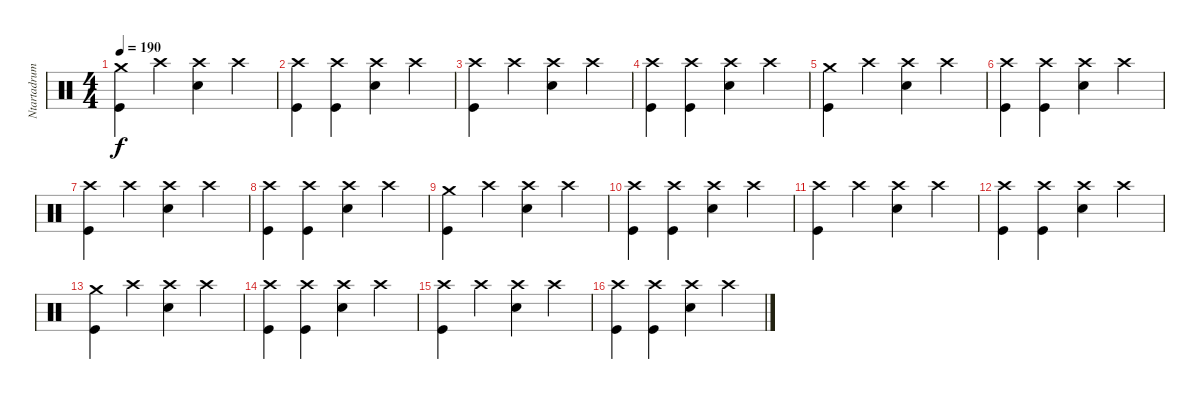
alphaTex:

\track ("Ntartadrum" "Ntartadrum") {instrument percussion}
\staff {score}
\articulation defaults
\ts (4 4)
\tempo 190
\clef neutral
\ks c
("Kick (hit)" "Crash medium (hit)").4{dy f} "Crash high (hit)".4 ("Electric Snare (hit)" "Crash high (hit)").4 "Crash high (hit)".4 |
("Kick (hit)" "Crash high (hit)").4 ("Kick (hit)" "Crash high (hit)").4 ("Electric Snare (hit)" "Crash high (hit)").4 "Crash high (hit)".4 |
("Kick (hit)" "Crash high (hit)").4 "Crash high (hit)".4 ("Electric Snare (hit)" "Crash high (hit)").4 "Crash high (hit)".4 |
("Kick (hit)" "Crash high (hit)").4 ("Kick (hit)" "Crash high (hit)").4 ("Electric Snare (hit)" "Crash high (hit)").4 "Crash high (hit)".4 |
("Kick (hit)" "Crash medium (hit)").4 "Crash high (hit)".4 ("Electric Snare (hit)" "Crash high (hit)").4 "Crash high (hit)".4 |
("Kick (hit)" "Crash high (hit)").4 ("Kick (hit)" "Crash high (hit)").4 ("Electric Snare (hit)" "Crash high (hit)").4 "Crash high (hit)".4 |
("Kick (hit)" "Crash high (hit)").4 "Crash high (hit)".4 ("Electric Snare (hit)" "Crash high (hit)").4 "Crash high (hit)".4 |
("Kick (hit)" "Crash high (hit)").4 ("Kick (hit)" "Crash high (hit)").4 ("Electric Snare (hit)" "Crash high (hit)").4 "Crash high (hit)".4 |
("Kick (hit)" "Crash medium (hit)").4 "Crash high (hit)".4 ("Electric Snare (hit)" "Crash high (hit)").4 "Crash high (hit)".4 |
("Kick (hit)" "Crash high (hit)").4 ("Kick (hit)" "Crash high (hit)").4 ("Electric Snare (hit)" "Crash high (hit)").4 "Crash high (hit)".4 |
("Kick (hit)" "Crash high (hit)").4 "Crash high (hit)".4 ("Electric Snare (hit)" "Crash high (hit)").4 "Crash high (hit)".4 |
("Kick (hit)" "Crash high (hit)").4 ("Kick (hit)" "Crash high (hit)").4 ("Electric Snare (hit)" "Crash high (hit)").4 "Crash high (hit)".4 |
("Kick (hit)" "Crash medium (hit)").4 "Crash high (hit)".4 ("Electric Snare (hit)" "Crash high (hit)").4 "Crash high (hit)".4 |
("Kick (hit)" "Crash high (hit)").4 ("Kick (hit)" "Crash high (hit)").4 ("Electric Snare (hit)" "Crash high (hit)").4 "Crash high (hit)".4 |
("Kick (hit)" "Crash high (hit)").4 "Crash high (hit)".4 ("Electric Snare (hit)" "Crash high (hit)").4 "Crash high (hit)".4 |
("Kick (hit)" "Crash high (hit)").4 ("Kick (hit)" "Crash high (hit)").4 ("Electric Snare (hit)" "Crash high (hit)").4 "Crash high (hit)".4
